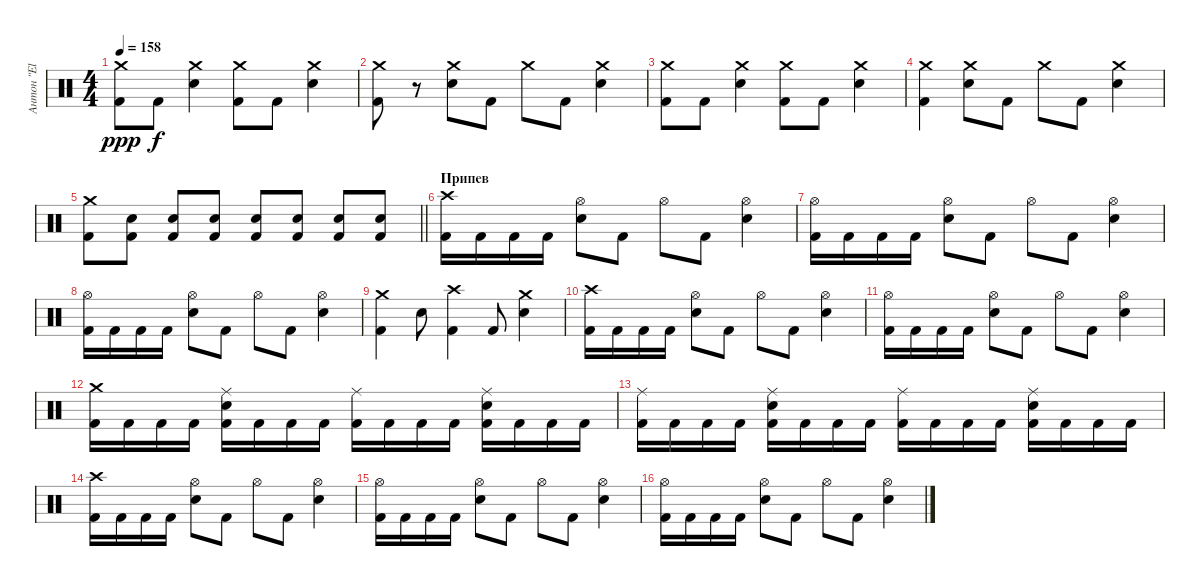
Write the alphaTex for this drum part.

\track ("Антон \"El Bastardo\" Смольянин" "Антон \"El ") {instrument percussion}
\staff {score}
\articulation defaults
\ts (4 4)
\tempo 158
\clef neutral
\ks c
("Crash medium (hit)" "Kick (hit) 2").8{dy ppp} "Kick (hit) 2".8{dy f} ("Crash medium (hit)" "Electric Snare (hit)").4 ("Crash medium (hit)" "Kick (hit) 2").8 "Kick (hit) 2".8 ("Crash medium (hit)" "Electric Snare (hit)").4 |
("Crash medium (hit)" "Kick (hit) 2").8 r.8 ("Crash medium (hit)" "Electric Snare (hit)").8 "Kick (hit) 2".8 "Crash medium (hit)".8 "Kick (hit) 2".8 ("Crash medium (hit)" "Electric Snare (hit)").4 |
("Crash medium (hit)" "Kick (hit) 2").8 "Kick (hit) 2".8 ("Crash medium (hit)" "Electric Snare (hit)").4 ("Crash medium (hit)" "Kick (hit) 2").8 "Kick (hit) 2".8 ("Crash medium (hit)" "Electric Snare (hit)").4 |
("Crash medium (hit)" "Kick (hit) 2").4 ("Crash medium (hit)" "Electric Snare (hit)").8 "Kick (hit) 2".8 "Crash medium (hit)".8 "Kick (hit) 2".8 ("Crash medium (hit)" "Electric Snare (hit)").4 |
\barLineRight lightlight
("Crash medium (hit)" "Kick (hit) 2").8 ("Electric Snare (hit)" "Kick (hit) 2").8 ("Electric Snare (hit)" "Kick (hit) 2").8 ("Electric Snare (hit)" "Kick (hit) 2").8 ("Electric Snare (hit)" "Kick (hit) 2").8 ("Electric Snare (hit)" "Kick (hit) 2").8 ("Electric Snare (hit)" "Kick (hit) 2").8 ("Electric Snare (hit)" "Kick (hit) 2").8 |
\section ("" "Припев")
("Crash high (hit)" "Kick (hit) 2").16 "Kick (hit) 2".16 "Kick (hit) 2".16 "Kick (hit) 2".16 ("Hi-Hat (open)" "Electric Snare (hit)").8 "Kick (hit) 2".8 "Hi-Hat (open)".8 "Kick (hit) 2".8 ("Hi-Hat (open)" "Electric Snare (hit)").4 |
("Hi-Hat (open)" "Kick (hit) 2").16 "Kick (hit) 2".16 "Kick (hit) 2".16 "Kick (hit) 2".16 ("Hi-Hat (open)" "Electric Snare (hit)").8 "Kick (hit) 2".8 "Hi-Hat (open)".8 "Kick (hit) 2".8 ("Hi-Hat (open)" "Electric Snare (hit)").4 |
("Hi-Hat (open)" "Kick (hit) 2").16 "Kick (hit) 2".16 "Kick (hit) 2".16 "Kick (hit) 2".16 ("Hi-Hat (open)" "Electric Snare (hit)").8 "Kick (hit) 2".8 "Hi-Hat (open)".8 "Kick (hit) 2".8 ("Hi-Hat (open)" "Electric Snare (hit)").4 |
("Crash medium (hit)" "Kick (hit) 2").4 "Electric Snare (hit)".8 ("Crash high (hit)" "Kick (hit) 2").4 "Kick (hit) 2".8 ("Crash medium (hit)" "Electric Snare (hit)").4 |
("Crash high (hit)" "Kick (hit) 2").16 "Kick (hit) 2".16 "Kick (hit) 2".16 "Kick (hit) 2".16 ("Hi-Hat (open)" "Electric Snare (hit)").8 "Kick (hit) 2".8 "Hi-Hat (open)".8 "Kick (hit) 2".8 ("Hi-Hat (open)" "Electric Snare (hit)").4 |
("Hi-Hat (open)" "Kick (hit) 2").16 "Kick (hit) 2".16 "Kick (hit) 2".16 "Kick (hit) 2".16 ("Hi-Hat (open)" "Electric Snare (hit)").8 "Kick (hit) 2".8 "Hi-Hat (open)".8 "Kick (hit) 2".8 ("Hi-Hat (open)" "Electric Snare (hit)").4 |
("Crash medium (hit)" "Kick (hit) 2").16 "Kick (hit) 2".16 "Kick (hit) 2".16 "Kick (hit) 2".16 ("Ride (middle)" "Electric Snare (hit)" "Kick (hit) 2").16 "Kick (hit) 2".16 "Kick (hit) 2".16 "Kick (hit) 2".16 ("Ride (middle)" "Kick (hit) 2").16 "Kick (hit) 2".16 "Kick (hit) 2".16 "Kick (hit) 2".16 ("Ride (middle)" "Electric Snare (hit)" "Kick (hit) 2").16 "Kick (hit) 2".16 "Kick (hit) 2".16 "Kick (hit) 2".16 |
("Ride (middle)" "Kick (hit) 2").16 "Kick (hit) 2".16 "Kick (hit) 2".16 "Kick (hit) 2".16 ("Ride (middle)" "Electric Snare (hit)" "Kick (hit) 2").16 "Kick (hit) 2".16 "Kick (hit) 2".16 "Kick (hit) 2".16 ("Ride (middle)" "Kick (hit) 2").16 "Kick (hit) 2".16 "Kick (hit) 2".16 "Kick (hit) 2".16 ("Ride (middle)" "Electric Snare (hit)" "Kick (hit) 2").16 "Kick (hit) 2".16 "Kick (hit) 2".16 "Kick (hit) 2".16 |
("Crash high (hit)" "Kick (hit) 2").16 "Kick (hit) 2".16 "Kick (hit) 2".16 "Kick (hit) 2".16 ("Hi-Hat (open)" "Electric Snare (hit)").8 "Kick (hit) 2".8 "Hi-Hat (open)".8 "Kick (hit) 2".8 ("Hi-Hat (open)" "Electric Snare (hit)").4 |
("Hi-Hat (open)" "Kick (hit) 2").16 "Kick (hit) 2".16 "Kick (hit) 2".16 "Kick (hit) 2".16 ("Hi-Hat (open)" "Electric Snare (hit)").8 "Kick (hit) 2".8 "Hi-Hat (open)".8 "Kick (hit) 2".8 ("Hi-Hat (open)" "Electric Snare (hit)").4 |
("Hi-Hat (open)" "Kick (hit) 2").16 "Kick (hit) 2".16 "Kick (hit) 2".16 "Kick (hit) 2".16 ("Hi-Hat (open)" "Electric Snare (hit)").8 "Kick (hit) 2".8 "Hi-Hat (open)".8 "Kick (hit) 2".8 ("Hi-Hat (open)" "Electric Snare (hit)").4
